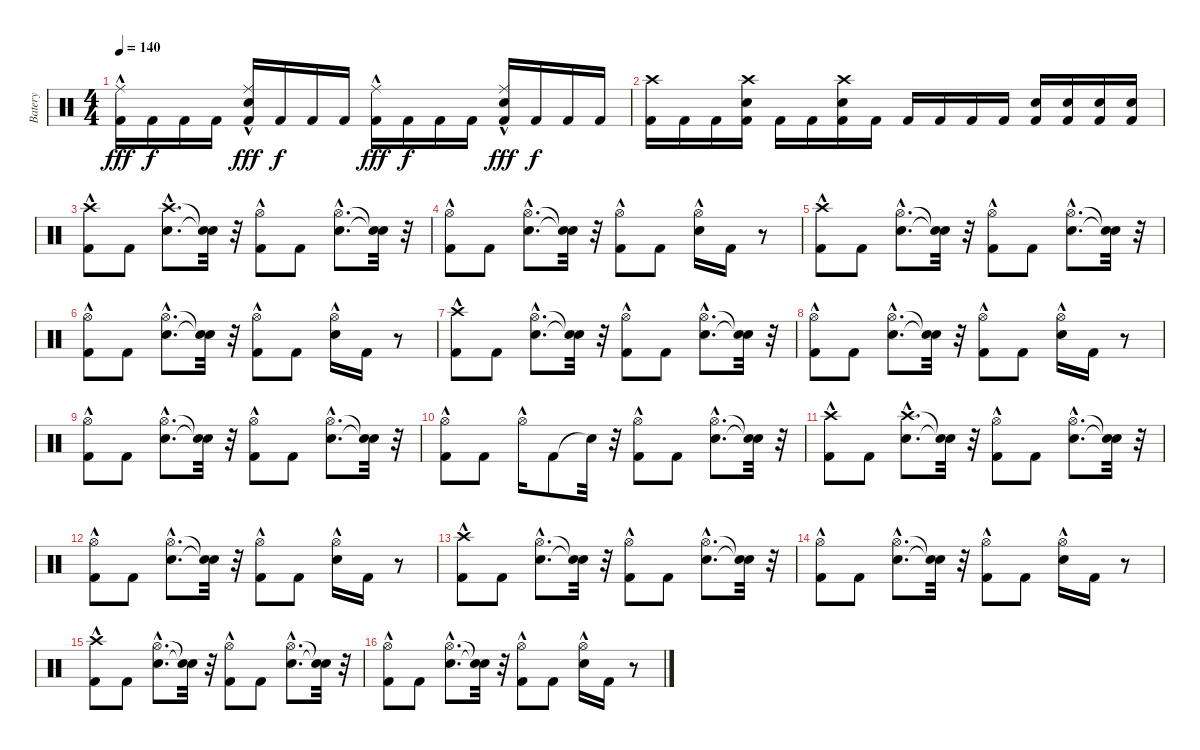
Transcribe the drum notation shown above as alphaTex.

\track ("Batery" "Batery") {instrument percussion}
\staff {score}
\articulation defaults
\ts (4 4)
\tempo 140
\clef neutral
\ks c
("Kick (hit) 2" "Ride (middle)"{hac}).16{dy fff} "Kick (hit) 2".16{dy f} "Kick (hit) 2".16 "Kick (hit) 2".16 ("Kick (hit) 2" "Ride (middle)"{hac} "Snare (hit) 2"{hac}).16{dy fff} "Kick (hit) 2".16{dy f} "Kick (hit) 2".16 "Kick (hit) 2".16 ("Kick (hit) 2" "Ride (middle)"{hac}).16{dy fff} "Kick (hit) 2".16{dy f} "Kick (hit) 2".16 "Kick (hit) 2".16 ("Kick (hit) 2" "Ride (middle)"{hac} "Snare (hit) 2"{hac}).16{dy fff} "Kick (hit) 2".16{dy f} "Kick (hit) 2".16 "Kick (hit) 2".16 |
("Crash high (hit)" "Kick (hit) 2").16 "Kick (hit) 2".16 "Kick (hit) 2".16 ("Crash high (hit)" "Snare (hit) 2" "Kick (hit) 2").16 "Kick (hit) 2".16 "Kick (hit) 2".16 ("Crash high (hit)" "Snare (hit) 2" "Kick (hit) 2").16 "Kick (hit) 2".16 "Kick (hit) 2".16 "Kick (hit) 2".16 "Kick (hit) 2".16 "Kick (hit) 2".16 ("Snare (hit) 2" "Kick (hit) 2").16 ("Snare (hit) 2" "Kick (hit) 2").16 ("Snare (hit) 2" "Kick (hit) 2").16 ("Snare (hit) 2" "Kick (hit) 2").16 |
("Crash high (hit)"{hac} "Kick (hit) 2").8 "Kick (hit) 2".8 ("Crash high (hit)"{hac} "Snare (hit) 2"{hac}).8{d} ("Snare (hit)"{t} "Snare (hit)"{t}).32 r.32 ("Hi-Hat (open)"{hac} "Kick (hit) 2").8 "Kick (hit) 2".8 ("Hi-Hat (open)"{hac} "Snare (hit) 2"{hac}).8{d} ("Snare (hit)"{t} "Snare (hit)"{t}).32 r.32 |
("Hi-Hat (open)"{hac} "Kick (hit) 2").8 "Kick (hit) 2".8 ("Hi-Hat (open)"{hac} "Snare (hit) 2"{hac}).8{d} ("Snare (hit)"{t} "Snare (hit)"{t}).32 r.32 ("Hi-Hat (open)"{hac} "Kick (hit) 2").8 "Kick (hit) 2".8 ("Hi-Hat (open)"{hac} "Snare (hit) 2"{hac}).16 "Kick (hit) 2".16 r.8 |
("Crash high (hit)"{hac} "Kick (hit) 2").8 "Kick (hit) 2".8 ("Hi-Hat (open)"{hac} "Snare (hit) 2"{hac}).8{d} ("Snare (hit)"{t} "Snare (hit)"{t}).32 r.32 ("Hi-Hat (open)"{hac} "Kick (hit) 2").8 "Kick (hit) 2".8 ("Hi-Hat (open)"{hac} "Snare (hit) 2"{hac}).8{d} ("Snare (hit)"{t} "Snare (hit)"{t}).32 r.32 |
("Hi-Hat (open)"{hac} "Kick (hit) 2").8 "Kick (hit) 2".8 ("Hi-Hat (open)"{hac} "Snare (hit) 2"{hac}).8{d} ("Snare (hit)"{t} "Snare (hit)"{t}).32 r.32 ("Hi-Hat (open)"{hac} "Kick (hit) 2").8 "Kick (hit) 2".8 ("Hi-Hat (open)"{hac} "Snare (hit) 2"{hac}).16 "Kick (hit) 2".16 r.8 |
("Crash high (hit)"{hac} "Kick (hit) 2").8 "Kick (hit) 2".8 ("Hi-Hat (open)"{hac} "Snare (hit) 2"{hac}).8{d} ("Snare (hit)"{t} "Snare (hit)"{t}).32 r.32 ("Hi-Hat (open)"{hac} "Kick (hit) 2").8 "Kick (hit) 2".8 ("Hi-Hat (open)"{hac} "Snare (hit) 2"{hac}).8{d} ("Snare (hit)"{t} "Snare (hit)"{t}).32 r.32 |
("Hi-Hat (open)"{hac} "Kick (hit) 2").8 "Kick (hit) 2".8 ("Hi-Hat (open)"{hac} "Snare (hit) 2"{hac}).8{d} ("Snare (hit)"{t} "Snare (hit)"{t}).32 r.32 ("Hi-Hat (open)"{hac} "Kick (hit) 2").8 "Kick (hit) 2".8 ("Hi-Hat (open)"{hac} "Snare (hit) 2"{hac}).16 "Kick (hit) 2".16 r.8 |
("Hi-Hat (open)"{hac} "Kick (hit) 2").8 "Kick (hit) 2".8 ("Hi-Hat (open)"{hac} "Snare (hit) 2"{hac}).8{d} ("Snare (hit)"{t} "Snare (hit)"{t}).32 r.32 ("Hi-Hat (open)"{hac} "Kick (hit) 2").8 "Kick (hit) 2".8 ("Hi-Hat (open)"{hac} "Snare (hit) 2"{hac}).8{d} ("Snare (hit)"{t} "Snare (hit)"{t}).32 r.32 |
("Kick (hit) 2" "Hi-Hat (open)"{hac}).8 "Kick (hit) 2".8 "Hi-Hat (open)"{hac}.16 "Kick (hit) 2".8 "Snare (hit)"{t}.32 r.32 ("Kick (hit) 2" "Hi-Hat (open)"{hac}).8 "Kick (hit) 2".8 ("Hi-Hat (open)"{hac} "Snare (hit) 2"{hac}).8{d} ("Snare (hit)"{t} "Snare (hit)"{t}).32 r.32 |
("Crash high (hit)"{hac} "Kick (hit) 2").8 "Kick (hit) 2".8 ("Crash high (hit)"{hac} "Snare (hit) 2"{hac}).8{d} ("Snare (hit)"{t} "Snare (hit)"{t}).32 r.32 ("Hi-Hat (open)"{hac} "Kick (hit) 2").8 "Kick (hit) 2".8 ("Hi-Hat (open)"{hac} "Snare (hit) 2"{hac}).8{d} ("Snare (hit)"{t} "Snare (hit)"{t}).32 r.32 |
("Hi-Hat (open)"{hac} "Kick (hit) 2").8 "Kick (hit) 2".8 ("Hi-Hat (open)"{hac} "Snare (hit) 2"{hac}).8{d} ("Snare (hit)"{t} "Snare (hit)"{t}).32 r.32 ("Hi-Hat (open)"{hac} "Kick (hit) 2").8 "Kick (hit) 2".8 ("Hi-Hat (open)"{hac} "Snare (hit) 2"{hac}).16 "Kick (hit) 2".16 r.8 |
("Crash high (hit)"{hac} "Kick (hit) 2").8 "Kick (hit) 2".8 ("Hi-Hat (open)"{hac} "Snare (hit) 2"{hac}).8{d} ("Snare (hit)"{t} "Snare (hit)"{t}).32 r.32 ("Hi-Hat (open)"{hac} "Kick (hit) 2").8 "Kick (hit) 2".8 ("Hi-Hat (open)"{hac} "Snare (hit) 2"{hac}).8{d} ("Snare (hit)"{t} "Snare (hit)"{t}).32 r.32 |
("Hi-Hat (open)"{hac} "Kick (hit) 2").8 "Kick (hit) 2".8 ("Hi-Hat (open)"{hac} "Snare (hit) 2"{hac}).8{d} ("Snare (hit)"{t} "Snare (hit)"{t}).32 r.32 ("Hi-Hat (open)"{hac} "Kick (hit) 2").8 "Kick (hit) 2".8 ("Hi-Hat (open)"{hac} "Snare (hit) 2"{hac}).16 "Kick (hit) 2".16 r.8 |
("Crash high (hit)"{hac} "Kick (hit) 2").8 "Kick (hit) 2".8 ("Hi-Hat (open)"{hac} "Snare (hit) 2"{hac}).8{d} ("Snare (hit)"{t} "Snare (hit)"{t}).32 r.32 ("Hi-Hat (open)"{hac} "Kick (hit) 2").8 "Kick (hit) 2".8 ("Hi-Hat (open)"{hac} "Snare (hit) 2"{hac}).8{d} ("Snare (hit)"{t} "Snare (hit)"{t}).32 r.32 |
("Hi-Hat (open)"{hac} "Kick (hit) 2").8 "Kick (hit) 2".8 ("Hi-Hat (open)"{hac} "Snare (hit) 2"{hac}).8{d} ("Snare (hit)"{t} "Snare (hit)"{t}).32 r.32 ("Hi-Hat (open)"{hac} "Kick (hit) 2").8 "Kick (hit) 2".8 ("Hi-Hat (open)"{hac} "Snare (hit) 2"{hac}).16 "Kick (hit) 2".16 r.8
